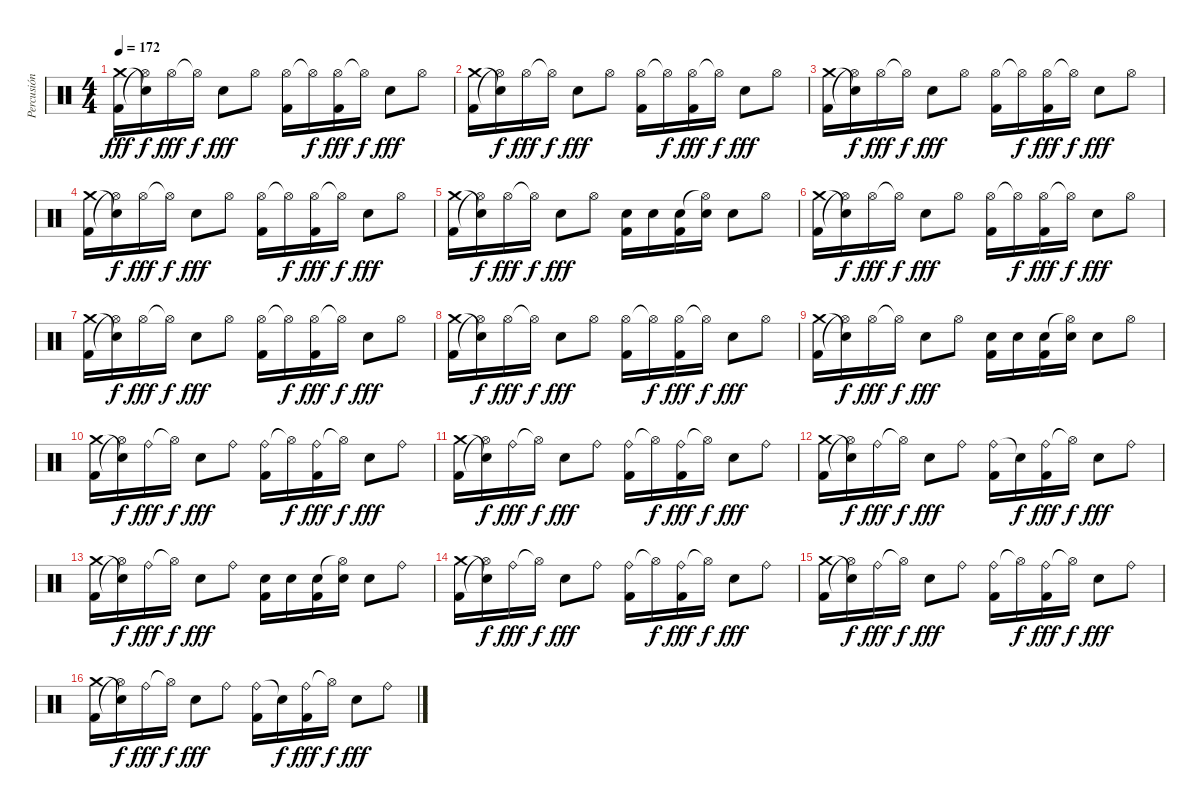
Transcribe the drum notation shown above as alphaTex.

\track ("Percusión" "Percusión") {instrument percussion}
\staff {score}
\articulation defaults
\ts (4 4)
\tempo 172
\clef neutral
\ks c
("Crash medium (hit)" "Kick (hit) 2").16{dy fff} ("Snare (hit)"{t} "Hi-Hat (open)"{t}).16{dy f} "Hi-Hat (open)".16{dy fff} "Hi-Hat (open)"{t}.16{dy f} "Electric Snare (hit)".8{dy fff} "Hi-Hat (open)".8 ("Hi-Hat (open)" "Kick (hit) 2").16 "Hi-Hat (open)"{t}.16{dy f} ("Hi-Hat (open)" "Kick (hit) 2").16{dy fff} "Hi-Hat (open)"{t}.16{dy f} "Electric Snare (hit)".8{dy fff} "Hi-Hat (open)".8 |
("Crash medium (hit)" "Kick (hit) 2").16 ("Snare (hit)"{t} "Hi-Hat (open)"{t}).16{dy f} "Hi-Hat (open)".16{dy fff} "Hi-Hat (open)"{t}.16{dy f} "Electric Snare (hit)".8{dy fff} "Hi-Hat (open)".8 ("Hi-Hat (open)" "Kick (hit) 2").16 "Hi-Hat (open)"{t}.16{dy f} ("Hi-Hat (open)" "Kick (hit) 2").16{dy fff} "Hi-Hat (open)"{t}.16{dy f} "Electric Snare (hit)".8{dy fff} "Hi-Hat (open)".8 |
("Crash medium (hit)" "Kick (hit) 2").16 ("Snare (hit)"{t} "Hi-Hat (open)"{t}).16{dy f} "Hi-Hat (open)".16{dy fff} "Hi-Hat (open)"{t}.16{dy f} "Electric Snare (hit)".8{dy fff} "Hi-Hat (open)".8 ("Hi-Hat (open)" "Kick (hit) 2").16 "Hi-Hat (open)"{t}.16{dy f} ("Hi-Hat (open)" "Kick (hit) 2").16{dy fff} "Hi-Hat (open)"{t}.16{dy f} "Electric Snare (hit)".8{dy fff} "Hi-Hat (open)".8 |
("Crash medium (hit)" "Kick (hit) 2").16 ("Snare (hit)"{t} "Hi-Hat (open)"{t}).16{dy f} "Hi-Hat (open)".16{dy fff} "Hi-Hat (open)"{t}.16{dy f} "Electric Snare (hit)".8{dy fff} "Hi-Hat (open)".8 ("Hi-Hat (open)" "Kick (hit) 2").16 "Hi-Hat (open)"{t}.16{dy f} ("Hi-Hat (open)" "Kick (hit) 2").16{dy fff} "Hi-Hat (open)"{t}.16{dy f} "Electric Snare (hit)".8{dy fff} "Hi-Hat (open)".8 |
("Crash medium (hit)" "Kick (hit) 2").16 ("Snare (hit)"{t} "Hi-Hat (open)"{t}).16{dy f} "Hi-Hat (open)".16{dy fff} "Hi-Hat (open)"{t}.16{dy f} "Electric Snare (hit)".8{dy fff} "Hi-Hat (open)".8 ("Electric Snare (hit)" "Kick (hit) 2").16 "Electric Snare (hit)".16 ("Electric Snare (hit)" "Kick (hit) 2").16 ("Hi-Hat (open)"{t} "Electric Snare (hit)").16 "Electric Snare (hit)".8 "Hi-Hat (open)".8 |
("Crash medium (hit)" "Kick (hit) 2").16 ("Snare (hit)"{t} "Hi-Hat (open)"{t}).16{dy f} "Hi-Hat (open)".16{dy fff} "Hi-Hat (open)"{t}.16{dy f} "Electric Snare (hit)".8{dy fff} "Hi-Hat (open)".8 ("Hi-Hat (open)" "Kick (hit) 2").16 "Hi-Hat (open)"{t}.16{dy f} ("Hi-Hat (open)" "Kick (hit) 2").16{dy fff} "Hi-Hat (open)"{t}.16{dy f} "Electric Snare (hit)".8{dy fff} "Hi-Hat (open)".8 |
("Crash medium (hit)" "Kick (hit) 2").16 ("Snare (hit)"{t} "Hi-Hat (open)"{t}).16{dy f} "Hi-Hat (open)".16{dy fff} "Hi-Hat (open)"{t}.16{dy f} "Electric Snare (hit)".8{dy fff} "Hi-Hat (open)".8 ("Hi-Hat (open)" "Kick (hit) 2").16 "Hi-Hat (open)"{t}.16{dy f} ("Hi-Hat (open)" "Kick (hit) 2").16{dy fff} "Hi-Hat (open)"{t}.16{dy f} "Electric Snare (hit)".8{dy fff} "Hi-Hat (open)".8 |
("Crash medium (hit)" "Kick (hit) 2").16 ("Snare (hit)"{t} "Hi-Hat (open)"{t}).16{dy f} "Hi-Hat (open)".16{dy fff} "Hi-Hat (open)"{t}.16{dy f} "Electric Snare (hit)".8{dy fff} "Hi-Hat (open)".8 ("Hi-Hat (open)" "Kick (hit) 2").16 "Hi-Hat (open)"{t}.16{dy f} ("Hi-Hat (open)" "Kick (hit) 2").16{dy fff} "Hi-Hat (open)"{t}.16{dy f} "Electric Snare (hit)".8{dy fff} "Hi-Hat (open)".8 |
("Crash medium (hit)" "Kick (hit) 2").16 ("Snare (hit)"{t} "Hi-Hat (open)"{t}).16{dy f} "Hi-Hat (open)".16{dy fff} "Hi-Hat (open)"{t}.16{dy f} "Electric Snare (hit)".8{dy fff} "Hi-Hat (open)".8 ("Electric Snare (hit)" "Kick (hit) 2").16 "Electric Snare (hit)".16 ("Electric Snare (hit)" "Kick (hit) 2").16 ("Hi-Hat (open)"{t} "Electric Snare (hit)").16 "Electric Snare (hit)".8 "Hi-Hat (open)".8 |
("Crash medium (hit)" "Kick (hit) 2").16 ("Snare (hit)"{t} "Hi-Hat (open)"{t}).16{dy f} "Ride (bell)".16{dy fff} "Hi-Hat (open)"{t}.16{dy f} "Electric Snare (hit)".8{dy fff} "Ride (bell)".8 ("Ride (bell)" "Kick (hit) 2").16 "Hi-Hat (open)"{t}.16{dy f} ("Ride (bell)" "Kick (hit) 2").16{dy fff} "Hi-Hat (open)"{t}.16{dy f} "Electric Snare (hit)".8{dy fff} "Ride (bell)".8 |
("Crash medium (hit)" "Kick (hit) 2").16 ("Snare (hit)"{t} "Hi-Hat (open)"{t}).16{dy f} "Ride (bell)".16{dy fff} "Hi-Hat (open)"{t}.16{dy f} "Electric Snare (hit)".8{dy fff} "Ride (bell)".8 ("Ride (bell)" "Kick (hit) 2").16 "Hi-Hat (open)"{t}.16{dy f} ("Ride (bell)" "Kick (hit) 2").16{dy fff} "Hi-Hat (open)"{t}.16{dy f} "Electric Snare (hit)".8{dy fff} "Ride (bell)".8 |
("Crash medium (hit)" "Kick (hit) 2").16 ("Snare (hit)"{t} "Hi-Hat (open)"{t}).16{dy f} "Ride (bell)".16{dy fff} "Hi-Hat (open)"{t}.16{dy f} "Electric Snare (hit)".8{dy fff} "Ride (bell)".8 ("Ride (bell)" "Kick (hit) 2").16 "Snare (hit)"{t}.16{dy f} ("Ride (bell)" "Kick (hit) 2").16{dy fff} "Hi-Hat (open)"{t}.16{dy f} "Electric Snare (hit)".8{dy fff} "Ride (bell)".8 |
("Crash medium (hit)" "Kick (hit) 2").16 ("Snare (hit)"{t} "Hi-Hat (open)"{t}).16{dy f} "Ride (bell)".16{dy fff} "Hi-Hat (open)"{t}.16{dy f} "Electric Snare (hit)".8{dy fff} "Ride (bell)".8 ("Electric Snare (hit)" "Kick (hit) 2").16 "Electric Snare (hit)".16 ("Electric Snare (hit)" "Kick (hit) 2").16 ("Hi-Hat (open)"{t} "Electric Snare (hit)").16 "Electric Snare (hit)".8 "Ride (bell)".8 |
("Crash medium (hit)" "Kick (hit) 2").16 ("Snare (hit)"{t} "Hi-Hat (open)"{t}).16{dy f} "Ride (bell)".16{dy fff} "Hi-Hat (open)"{t}.16{dy f} "Electric Snare (hit)".8{dy fff} "Ride (bell)".8 ("Ride (bell)" "Kick (hit) 2").16 "Hi-Hat (open)"{t}.16{dy f} ("Ride (bell)" "Kick (hit) 2").16{dy fff} "Hi-Hat (open)"{t}.16{dy f} "Electric Snare (hit)".8{dy fff} "Ride (bell)".8 |
("Crash medium (hit)" "Kick (hit) 2").16 ("Snare (hit)"{t} "Hi-Hat (open)"{t}).16{dy f} "Ride (bell)".16{dy fff} "Hi-Hat (open)"{t}.16{dy f} "Electric Snare (hit)".8{dy fff} "Ride (bell)".8 ("Ride (bell)" "Kick (hit) 2").16 "Hi-Hat (open)"{t}.16{dy f} ("Ride (bell)" "Kick (hit) 2").16{dy fff} "Hi-Hat (open)"{t}.16{dy f} "Electric Snare (hit)".8{dy fff} "Ride (bell)".8 |
("Crash medium (hit)" "Kick (hit) 2").16 ("Snare (hit)"{t} "Hi-Hat (open)"{t}).16{dy f} "Ride (bell)".16{dy fff} "Hi-Hat (open)"{t}.16{dy f} "Electric Snare (hit)".8{dy fff} "Ride (bell)".8 ("Ride (bell)" "Kick (hit) 2").16 "Snare (hit)"{t}.16{dy f} ("Ride (bell)" "Kick (hit) 2").16{dy fff} "Hi-Hat (open)"{t}.16{dy f} "Electric Snare (hit)".8{dy fff} "Ride (bell)".8
